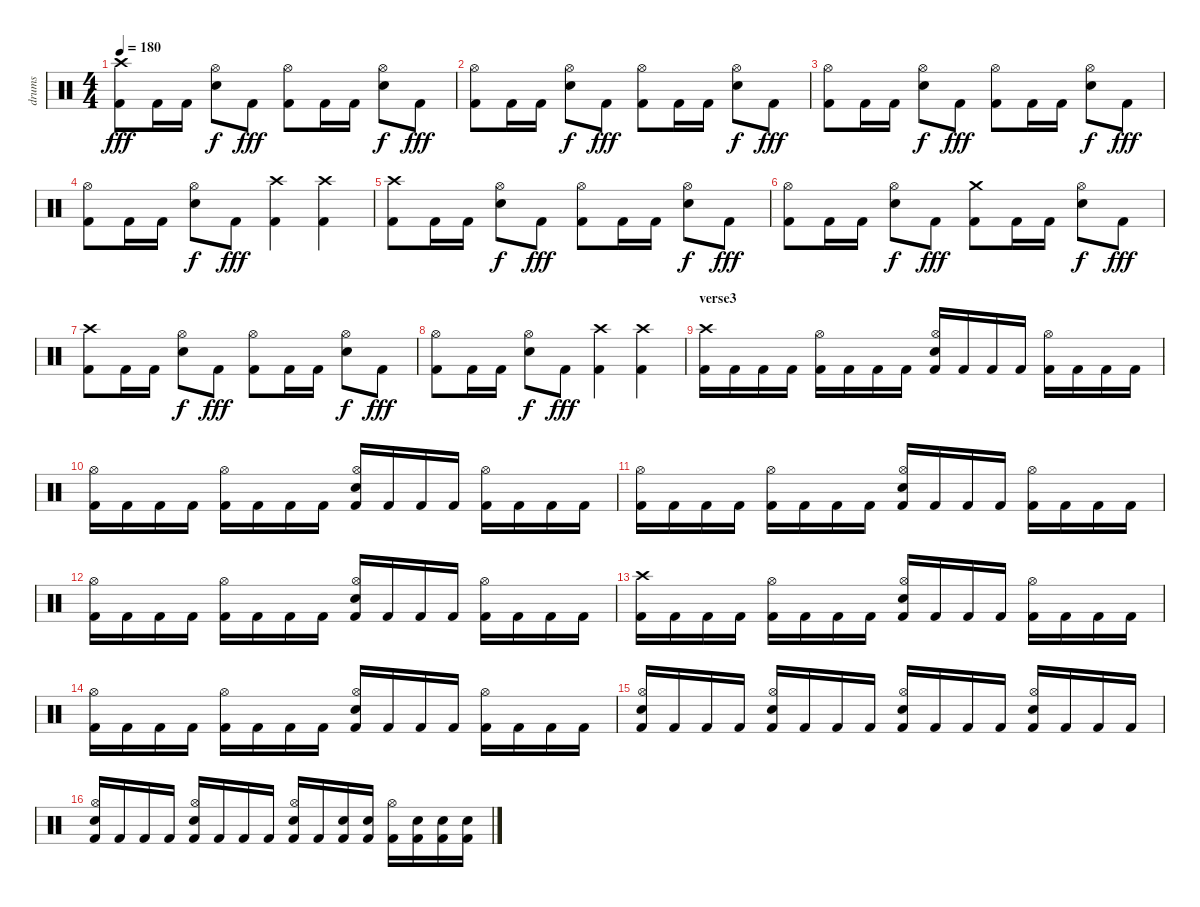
\track ("drums" "drums") {instrument percussion}
\staff {score}
\articulation defaults
\ts (4 4)
\tempo 180
\clef neutral
\ks c
("Crash high (hit)" "Kick (hit) 2").8{dy fff} "Kick (hit) 2".16 "Kick (hit) 2".16 ("Hi-Hat (open)" "Snare (hit) 2").8{dy f} "Kick (hit) 2".8{dy fff} ("Hi-Hat (open)" "Kick (hit) 2").8 "Kick (hit) 2".16 "Kick (hit) 2".16 ("Hi-Hat (open)" "Snare (hit) 2").8{dy f} "Kick (hit) 2".8{dy fff} |
("Hi-Hat (open)" "Kick (hit) 2").8 "Kick (hit) 2".16 "Kick (hit) 2".16 ("Hi-Hat (open)" "Snare (hit) 2").8{dy f} "Kick (hit) 2".8{dy fff} ("Hi-Hat (open)" "Kick (hit) 2").8 "Kick (hit) 2".16 "Kick (hit) 2".16 ("Hi-Hat (open)" "Snare (hit) 2").8{dy f} "Kick (hit) 2".8{dy fff} |
("Hi-Hat (open)" "Kick (hit) 2").8 "Kick (hit) 2".16 "Kick (hit) 2".16 ("Hi-Hat (open)" "Snare (hit) 2").8{dy f} "Kick (hit) 2".8{dy fff} ("Hi-Hat (open)" "Kick (hit) 2").8 "Kick (hit) 2".16 "Kick (hit) 2".16 ("Hi-Hat (open)" "Snare (hit) 2").8{dy f} "Kick (hit) 2".8{dy fff} |
("Hi-Hat (open)" "Kick (hit) 2").8 "Kick (hit) 2".16 "Kick (hit) 2".16 ("Hi-Hat (open)" "Snare (hit) 2").8{dy f} "Kick (hit) 2".8{dy fff} ("Crash high (hit)" "Kick (hit) 2").4 ("Crash high (hit)" "Kick (hit) 2").4 |
("Crash high (hit)" "Kick (hit) 2").8 "Kick (hit) 2".16 "Kick (hit) 2".16 ("Hi-Hat (open)" "Snare (hit) 2").8{dy f} "Kick (hit) 2".8{dy fff} ("Hi-Hat (open)" "Kick (hit) 2").8 "Kick (hit) 2".16 "Kick (hit) 2".16 ("Hi-Hat (open)" "Snare (hit) 2").8{dy f} "Kick (hit) 2".8{dy fff} |
("Hi-Hat (open)" "Kick (hit) 2").8 "Kick (hit) 2".16 "Kick (hit) 2".16 ("Hi-Hat (open)" "Snare (hit) 2").8{dy f} "Kick (hit) 2".8{dy fff} ("Crash medium (hit)" "Kick (hit) 2").8 "Kick (hit) 2".16 "Kick (hit) 2".16 ("Hi-Hat (open)" "Snare (hit) 2").8{dy f} "Kick (hit) 2".8{dy fff} |
("Crash high (hit)" "Kick (hit) 2").8 "Kick (hit) 2".16 "Kick (hit) 2".16 ("Hi-Hat (open)" "Snare (hit) 2").8{dy f} "Kick (hit) 2".8{dy fff} ("Hi-Hat (open)" "Kick (hit) 2").8 "Kick (hit) 2".16 "Kick (hit) 2".16 ("Hi-Hat (open)" "Snare (hit) 2").8{dy f} "Kick (hit) 2".8{dy fff} |
("Hi-Hat (open)" "Kick (hit) 2").8 "Kick (hit) 2".16 "Kick (hit) 2".16 ("Hi-Hat (open)" "Snare (hit) 2").8{dy f} "Kick (hit) 2".8{dy fff} ("Crash high (hit)" "Kick (hit) 2").4 ("Crash high (hit)" "Kick (hit) 2").4 |
\section ("" "verse3")
("Crash high (hit)" "Kick (hit) 2").16 "Kick (hit) 2".16 "Kick (hit) 2".16 "Kick (hit) 2".16 ("Hi-Hat (open)" "Kick (hit) 2").16 "Kick (hit) 2".16 "Kick (hit) 2".16 "Kick (hit) 2".16 ("Hi-Hat (open)" "Snare (hit) 2" "Kick (hit) 2").16 "Kick (hit) 2".16 "Kick (hit) 2".16 "Kick (hit) 2".16 ("Hi-Hat (open)" "Kick (hit) 2").16 "Kick (hit) 2".16 "Kick (hit) 2".16 "Kick (hit) 2".16 |
("Hi-Hat (open)" "Kick (hit) 2").16 "Kick (hit) 2".16 "Kick (hit) 2".16 "Kick (hit) 2".16 ("Hi-Hat (open)" "Kick (hit) 2").16 "Kick (hit) 2".16 "Kick (hit) 2".16 "Kick (hit) 2".16 ("Hi-Hat (open)" "Snare (hit) 2" "Kick (hit) 2").16 "Kick (hit) 2".16 "Kick (hit) 2".16 "Kick (hit) 2".16 ("Hi-Hat (open)" "Kick (hit) 2").16 "Kick (hit) 2".16 "Kick (hit) 2".16 "Kick (hit) 2".16 |
("Hi-Hat (open)" "Kick (hit) 2").16 "Kick (hit) 2".16 "Kick (hit) 2".16 "Kick (hit) 2".16 ("Hi-Hat (open)" "Kick (hit) 2").16 "Kick (hit) 2".16 "Kick (hit) 2".16 "Kick (hit) 2".16 ("Hi-Hat (open)" "Snare (hit) 2" "Kick (hit) 2").16 "Kick (hit) 2".16 "Kick (hit) 2".16 "Kick (hit) 2".16 ("Hi-Hat (open)" "Kick (hit) 2").16 "Kick (hit) 2".16 "Kick (hit) 2".16 "Kick (hit) 2".16 |
("Hi-Hat (open)" "Kick (hit) 2").16 "Kick (hit) 2".16 "Kick (hit) 2".16 "Kick (hit) 2".16 ("Hi-Hat (open)" "Kick (hit) 2").16 "Kick (hit) 2".16 "Kick (hit) 2".16 "Kick (hit) 2".16 ("Hi-Hat (open)" "Snare (hit) 2" "Kick (hit) 2").16 "Kick (hit) 2".16 "Kick (hit) 2".16 "Kick (hit) 2".16 ("Hi-Hat (open)" "Kick (hit) 2").16 "Kick (hit) 2".16 "Kick (hit) 2".16 "Kick (hit) 2".16 |
("Crash high (hit)" "Kick (hit) 2").16 "Kick (hit) 2".16 "Kick (hit) 2".16 "Kick (hit) 2".16 ("Hi-Hat (open)" "Kick (hit) 2").16 "Kick (hit) 2".16 "Kick (hit) 2".16 "Kick (hit) 2".16 ("Hi-Hat (open)" "Snare (hit) 2" "Kick (hit) 2").16 "Kick (hit) 2".16 "Kick (hit) 2".16 "Kick (hit) 2".16 ("Hi-Hat (open)" "Kick (hit) 2").16 "Kick (hit) 2".16 "Kick (hit) 2".16 "Kick (hit) 2".16 |
("Hi-Hat (open)" "Kick (hit) 2").16 "Kick (hit) 2".16 "Kick (hit) 2".16 "Kick (hit) 2".16 ("Hi-Hat (open)" "Kick (hit) 2").16 "Kick (hit) 2".16 "Kick (hit) 2".16 "Kick (hit) 2".16 ("Hi-Hat (open)" "Snare (hit) 2" "Kick (hit) 2").16 "Kick (hit) 2".16 "Kick (hit) 2".16 "Kick (hit) 2".16 ("Hi-Hat (open)" "Kick (hit) 2").16 "Kick (hit) 2".16 "Kick (hit) 2".16 "Kick (hit) 2".16 |
("Hi-Hat (open)" "Snare (hit) 2" "Kick (hit) 2").16 "Kick (hit) 2".16 "Kick (hit) 2".16 "Kick (hit) 2".16 ("Hi-Hat (open)" "Snare (hit) 2" "Kick (hit) 2").16 "Kick (hit) 2".16 "Kick (hit) 2".16 "Kick (hit) 2".16 ("Hi-Hat (open)" "Snare (hit) 2" "Kick (hit) 2").16 "Kick (hit) 2".16 "Kick (hit) 2".16 "Kick (hit) 2".16 ("Hi-Hat (open)" "Snare (hit) 2" "Kick (hit) 2").16 "Kick (hit) 2".16 "Kick (hit) 2".16 "Kick (hit) 2".16 |
("Hi-Hat (open)" "Snare (hit) 2" "Kick (hit) 2").16 "Kick (hit) 2".16 "Kick (hit) 2".16 "Kick (hit) 2".16 ("Hi-Hat (open)" "Snare (hit) 2" "Kick (hit) 2").16 "Kick (hit) 2".16 "Kick (hit) 2".16 "Kick (hit) 2".16 ("Hi-Hat (open)" "Snare (hit) 2" "Kick (hit) 2").16 "Kick (hit) 2".16 ("Snare (hit) 2" "Kick (hit) 2").16 ("Snare (hit) 2" "Kick (hit) 2").16 ("Hi-Hat (open)" "Kick (hit) 2").16 ("Snare (hit) 2" "Kick (hit) 2").16 ("Snare (hit) 2" "Kick (hit) 2").16 ("Snare (hit) 2" "Kick (hit) 2").16
